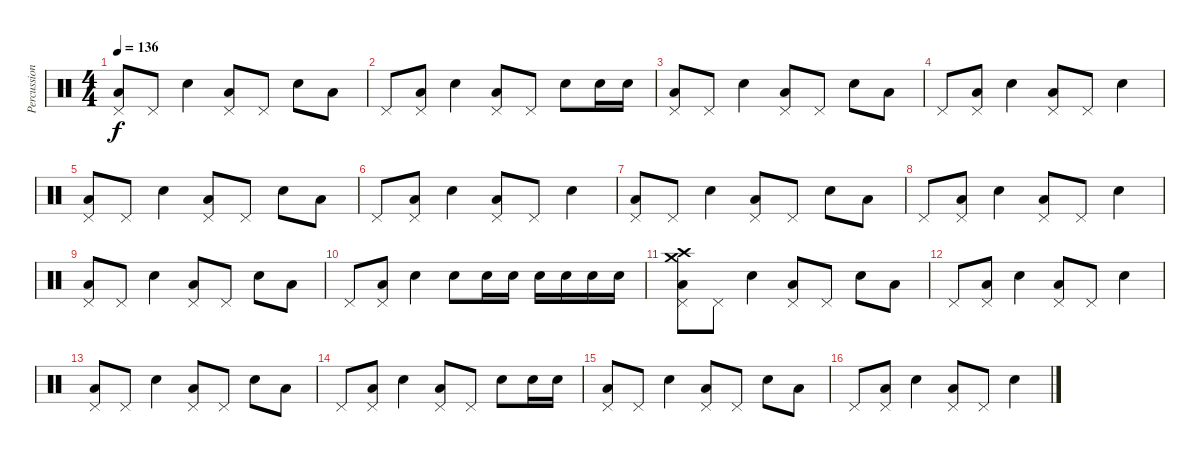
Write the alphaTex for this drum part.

\track ("Percussions" "Percussion") {instrument percussion}
\staff {score}
\articulation defaults
\ts (4 4)
\tempo 136
\clef neutral
\ks c
("Low Floor Tom (hit)" "Pedal Hi-Hat (hit)").8{dy f} "Pedal Hi-Hat (hit)".8 "Snare (hit) 2".4 ("Low Floor Tom (hit)" "Pedal Hi-Hat (hit)").8 "Pedal Hi-Hat (hit)".8 "Snare (hit) 2".8 "Low Floor Tom (hit)".8 |
"Pedal Hi-Hat (hit)".8 ("Low Floor Tom (hit)" "Pedal Hi-Hat (hit)").8 "Snare (hit) 2".4 ("Low Floor Tom (hit)" "Pedal Hi-Hat (hit)").8 "Pedal Hi-Hat (hit)".8 "Snare (hit) 2".8 "Snare (hit) 2".16 "Snare (hit) 2".16 |
("Low Floor Tom (hit)" "Pedal Hi-Hat (hit)").8 "Pedal Hi-Hat (hit)".8 "Snare (hit) 2".4 ("Low Floor Tom (hit)" "Pedal Hi-Hat (hit)").8 "Pedal Hi-Hat (hit)".8 "Snare (hit) 2".8 "Low Floor Tom (hit)".8 |
"Pedal Hi-Hat (hit)".8 ("Low Floor Tom (hit)" "Pedal Hi-Hat (hit)").8 "Snare (hit) 2".4 ("Low Floor Tom (hit)" "Pedal Hi-Hat (hit)").8 "Pedal Hi-Hat (hit)".8 "Snare (hit) 2".4 |
("Low Floor Tom (hit)" "Pedal Hi-Hat (hit)").8 "Pedal Hi-Hat (hit)".8 "Snare (hit) 2".4 ("Low Floor Tom (hit)" "Pedal Hi-Hat (hit)").8 "Pedal Hi-Hat (hit)".8 "Snare (hit) 2".8 "Low Floor Tom (hit)".8 |
"Pedal Hi-Hat (hit)".8 ("Low Floor Tom (hit)" "Pedal Hi-Hat (hit)").8 "Snare (hit) 2".4 ("Low Floor Tom (hit)" "Pedal Hi-Hat (hit)").8 "Pedal Hi-Hat (hit)".8 "Snare (hit) 2".4 |
("Low Floor Tom (hit)" "Pedal Hi-Hat (hit)").8 "Pedal Hi-Hat (hit)".8 "Snare (hit) 2".4 ("Low Floor Tom (hit)" "Pedal Hi-Hat (hit)").8 "Pedal Hi-Hat (hit)".8 "Snare (hit) 2".8 "Low Floor Tom (hit)".8 |
"Pedal Hi-Hat (hit)".8 ("Low Floor Tom (hit)" "Pedal Hi-Hat (hit)").8 "Snare (hit) 2".4 ("Low Floor Tom (hit)" "Pedal Hi-Hat (hit)").8 "Pedal Hi-Hat (hit)".8 "Snare (hit) 2".4 |
("Low Floor Tom (hit)" "Pedal Hi-Hat (hit)").8 "Pedal Hi-Hat (hit)".8 "Snare (hit) 2".4 ("Low Floor Tom (hit)" "Pedal Hi-Hat (hit)").8 "Pedal Hi-Hat (hit)".8 "Snare (hit) 2".8 "Low Floor Tom (hit)".8 |
"Pedal Hi-Hat (hit)".8 ("Low Floor Tom (hit)" "Pedal Hi-Hat (hit)").8 "Snare (hit) 2".4 "Snare (hit) 2".8 "Snare (hit) 2".16 "Snare (hit) 2".16 "Snare (hit) 2".16 "Snare (hit) 2".16 "Snare (hit) 2".16 "Snare (hit) 2".16 |
("Low Floor Tom (hit)" "Pedal Hi-Hat (hit)" "Crash high (hit)" "Crash medium (hit)").8 "Pedal Hi-Hat (hit)".8 "Snare (hit) 2".4 ("Low Floor Tom (hit)" "Pedal Hi-Hat (hit)").8 "Pedal Hi-Hat (hit)".8 "Snare (hit) 2".8 "Low Floor Tom (hit)".8 |
"Pedal Hi-Hat (hit)".8 ("Low Floor Tom (hit)" "Pedal Hi-Hat (hit)").8 "Snare (hit) 2".4 ("Low Floor Tom (hit)" "Pedal Hi-Hat (hit)").8 "Pedal Hi-Hat (hit)".8 "Snare (hit) 2".4 |
("Low Floor Tom (hit)" "Pedal Hi-Hat (hit)").8 "Pedal Hi-Hat (hit)".8 "Snare (hit) 2".4 ("Low Floor Tom (hit)" "Pedal Hi-Hat (hit)").8 "Pedal Hi-Hat (hit)".8 "Snare (hit) 2".8 "Low Floor Tom (hit)".8 |
"Pedal Hi-Hat (hit)".8 ("Low Floor Tom (hit)" "Pedal Hi-Hat (hit)").8 "Snare (hit) 2".4 ("Low Floor Tom (hit)" "Pedal Hi-Hat (hit)").8 "Pedal Hi-Hat (hit)".8 "Snare (hit) 2".8 "Snare (hit) 2".16 "Snare (hit) 2".16 |
("Low Floor Tom (hit)" "Pedal Hi-Hat (hit)").8 "Pedal Hi-Hat (hit)".8 "Snare (hit) 2".4 ("Low Floor Tom (hit)" "Pedal Hi-Hat (hit)").8 "Pedal Hi-Hat (hit)".8 "Snare (hit) 2".8 "Low Floor Tom (hit)".8 |
"Pedal Hi-Hat (hit)".8 ("Low Floor Tom (hit)" "Pedal Hi-Hat (hit)").8 "Snare (hit) 2".4 ("Low Floor Tom (hit)" "Pedal Hi-Hat (hit)").8 "Pedal Hi-Hat (hit)".8 "Snare (hit) 2".4
